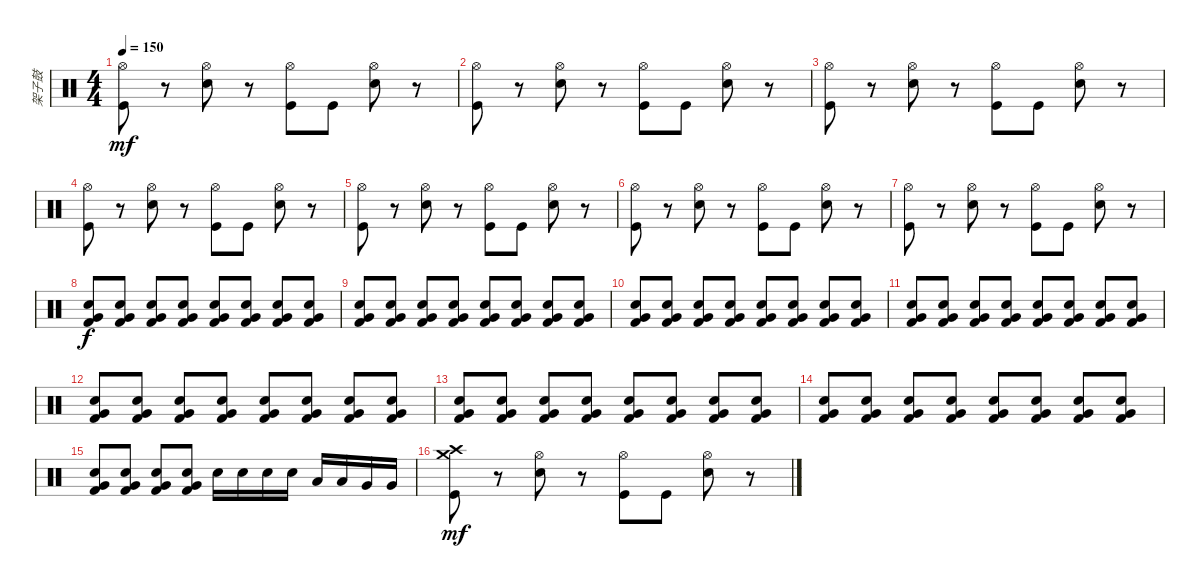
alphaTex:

\track ("架子鼓" "架子鼓") {instrument percussion}
\staff {score}
\articulation defaults
\ts (4 4)
\tempo 150
\clef neutral
\ks c
("Hi-Hat (open)" "Kick (hit)").8{dy mf} r.8 ("Hi-Hat (open)" "Snare (hit) 2").8 r.8 ("Hi-Hat (open)" "Kick (hit)").8 "Kick (hit)".8 ("Hi-Hat (open)" "Snare (hit) 2").8 r.8 |
("Hi-Hat (open)" "Kick (hit)").8 r.8 ("Hi-Hat (open)" "Snare (hit) 2").8 r.8 ("Hi-Hat (open)" "Kick (hit)").8 "Kick (hit)".8 ("Hi-Hat (open)" "Snare (hit) 2").8 r.8 |
("Hi-Hat (open)" "Kick (hit)").8 r.8 ("Hi-Hat (open)" "Snare (hit) 2").8 r.8 ("Hi-Hat (open)" "Kick (hit)").8 "Kick (hit)".8 ("Hi-Hat (open)" "Snare (hit) 2").8 r.8 |
("Hi-Hat (open)" "Kick (hit)").8 r.8 ("Hi-Hat (open)" "Snare (hit) 2").8 r.8 ("Hi-Hat (open)" "Kick (hit)").8 "Kick (hit)".8 ("Hi-Hat (open)" "Snare (hit) 2").8 r.8 |
("Hi-Hat (open)" "Kick (hit)").8 r.8 ("Hi-Hat (open)" "Snare (hit) 2").8 r.8 ("Hi-Hat (open)" "Kick (hit)").8 "Kick (hit)".8 ("Hi-Hat (open)" "Snare (hit) 2").8 r.8 |
("Hi-Hat (open)" "Kick (hit)").8 r.8 ("Hi-Hat (open)" "Snare (hit) 2").8 r.8 ("Hi-Hat (open)" "Kick (hit)").8 "Kick (hit)".8 ("Hi-Hat (open)" "Snare (hit) 2").8 r.8 |
("Hi-Hat (open)" "Kick (hit)").8 r.8 ("Hi-Hat (open)" "Snare (hit) 2").8 r.8 ("Hi-Hat (open)" "Kick (hit)").8 "Kick (hit)".8 ("Hi-Hat (open)" "Snare (hit) 2").8 r.8 |
("Electric Snare (hit)" "Very Low Tom (hit)" "Kick (hit) 2").8{dy f} ("Electric Snare (hit)" "Very Low Tom (hit)" "Kick (hit) 2").8 ("Electric Snare (hit)" "Very Low Tom (hit)" "Kick (hit) 2").8 ("Electric Snare (hit)" "Very Low Tom (hit)" "Kick (hit) 2").8 ("Electric Snare (hit)" "Very Low Tom (hit)" "Kick (hit) 2").8 ("Electric Snare (hit)" "Very Low Tom (hit)" "Kick (hit) 2").8 ("Electric Snare (hit)" "Very Low Tom (hit)" "Kick (hit) 2").8 ("Electric Snare (hit)" "Very Low Tom (hit)" "Kick (hit) 2").8 |
("Electric Snare (hit)" "Very Low Tom (hit)" "Kick (hit) 2").8 ("Electric Snare (hit)" "Very Low Tom (hit)" "Kick (hit) 2").8 ("Electric Snare (hit)" "Very Low Tom (hit)" "Kick (hit) 2").8 ("Electric Snare (hit)" "Very Low Tom (hit)" "Kick (hit) 2").8 ("Electric Snare (hit)" "Very Low Tom (hit)" "Kick (hit) 2").8 ("Electric Snare (hit)" "Very Low Tom (hit)" "Kick (hit) 2").8 ("Electric Snare (hit)" "Very Low Tom (hit)" "Kick (hit) 2").8 ("Electric Snare (hit)" "Very Low Tom (hit)" "Kick (hit) 2").8 |
("Electric Snare (hit)" "Very Low Tom (hit)" "Kick (hit) 2").8 ("Electric Snare (hit)" "Very Low Tom (hit)" "Kick (hit) 2").8 ("Electric Snare (hit)" "Very Low Tom (hit)" "Kick (hit) 2").8 ("Electric Snare (hit)" "Very Low Tom (hit)" "Kick (hit) 2").8 ("Electric Snare (hit)" "Very Low Tom (hit)" "Kick (hit) 2").8 ("Electric Snare (hit)" "Very Low Tom (hit)" "Kick (hit) 2").8 ("Electric Snare (hit)" "Very Low Tom (hit)" "Kick (hit) 2").8 ("Electric Snare (hit)" "Very Low Tom (hit)" "Kick (hit) 2").8 |
("Electric Snare (hit)" "Very Low Tom (hit)" "Kick (hit) 2").8 ("Electric Snare (hit)" "Very Low Tom (hit)" "Kick (hit) 2").8 ("Electric Snare (hit)" "Very Low Tom (hit)" "Kick (hit) 2").8 ("Electric Snare (hit)" "Very Low Tom (hit)" "Kick (hit) 2").8 ("Electric Snare (hit)" "Very Low Tom (hit)" "Kick (hit) 2").8 ("Electric Snare (hit)" "Very Low Tom (hit)" "Kick (hit) 2").8 ("Electric Snare (hit)" "Very Low Tom (hit)" "Kick (hit) 2").8 ("Electric Snare (hit)" "Very Low Tom (hit)" "Kick (hit) 2").8 |
("Electric Snare (hit)" "Very Low Tom (hit)" "Kick (hit) 2").8 ("Electric Snare (hit)" "Very Low Tom (hit)" "Kick (hit) 2").8 ("Electric Snare (hit)" "Very Low Tom (hit)" "Kick (hit) 2").8 ("Electric Snare (hit)" "Very Low Tom (hit)" "Kick (hit) 2").8 ("Electric Snare (hit)" "Very Low Tom (hit)" "Kick (hit) 2").8 ("Electric Snare (hit)" "Very Low Tom (hit)" "Kick (hit) 2").8 ("Electric Snare (hit)" "Very Low Tom (hit)" "Kick (hit) 2").8 ("Electric Snare (hit)" "Very Low Tom (hit)" "Kick (hit) 2").8 |
("Electric Snare (hit)" "Very Low Tom (hit)" "Kick (hit) 2").8 ("Electric Snare (hit)" "Very Low Tom (hit)" "Kick (hit) 2").8 ("Electric Snare (hit)" "Very Low Tom (hit)" "Kick (hit) 2").8 ("Electric Snare (hit)" "Very Low Tom (hit)" "Kick (hit) 2").8 ("Electric Snare (hit)" "Very Low Tom (hit)" "Kick (hit) 2").8 ("Electric Snare (hit)" "Very Low Tom (hit)" "Kick (hit) 2").8 ("Electric Snare (hit)" "Very Low Tom (hit)" "Kick (hit) 2").8 ("Electric Snare (hit)" "Very Low Tom (hit)" "Kick (hit) 2").8 |
("Electric Snare (hit)" "Very Low Tom (hit)" "Kick (hit) 2").8 ("Electric Snare (hit)" "Very Low Tom (hit)" "Kick (hit) 2").8 ("Electric Snare (hit)" "Very Low Tom (hit)" "Kick (hit) 2").8 ("Electric Snare (hit)" "Very Low Tom (hit)" "Kick (hit) 2").8 ("Electric Snare (hit)" "Very Low Tom (hit)" "Kick (hit) 2").8 ("Electric Snare (hit)" "Very Low Tom (hit)" "Kick (hit) 2").8 ("Electric Snare (hit)" "Very Low Tom (hit)" "Kick (hit) 2").8 ("Electric Snare (hit)" "Very Low Tom (hit)" "Kick (hit) 2").8 |
("Electric Snare (hit)" "Very Low Tom (hit)" "Kick (hit) 2").8 ("Electric Snare (hit)" "Very Low Tom (hit)" "Kick (hit) 2").8 ("Electric Snare (hit)" "Very Low Tom (hit)" "Kick (hit) 2").8 ("Electric Snare (hit)" "Very Low Tom (hit)" "Kick (hit) 2").8 "Electric Snare (hit)".16 "Electric Snare (hit)".16 "Electric Snare (hit)".16 "Electric Snare (hit)".16 "Low Tom (hit)".16 "Low Tom (hit)".16 "Very Low Tom (hit)".16 "Very Low Tom (hit)".16 |
("Crash high (hit)" "Crash medium (hit)" "Kick (hit)").8{dy mf} r.8 ("Hi-Hat (open)" "Snare (hit) 2").8 r.8 ("Hi-Hat (open)" "Kick (hit)").8 "Kick (hit)".8 ("Hi-Hat (open)" "Snare (hit) 2").8 r.8
